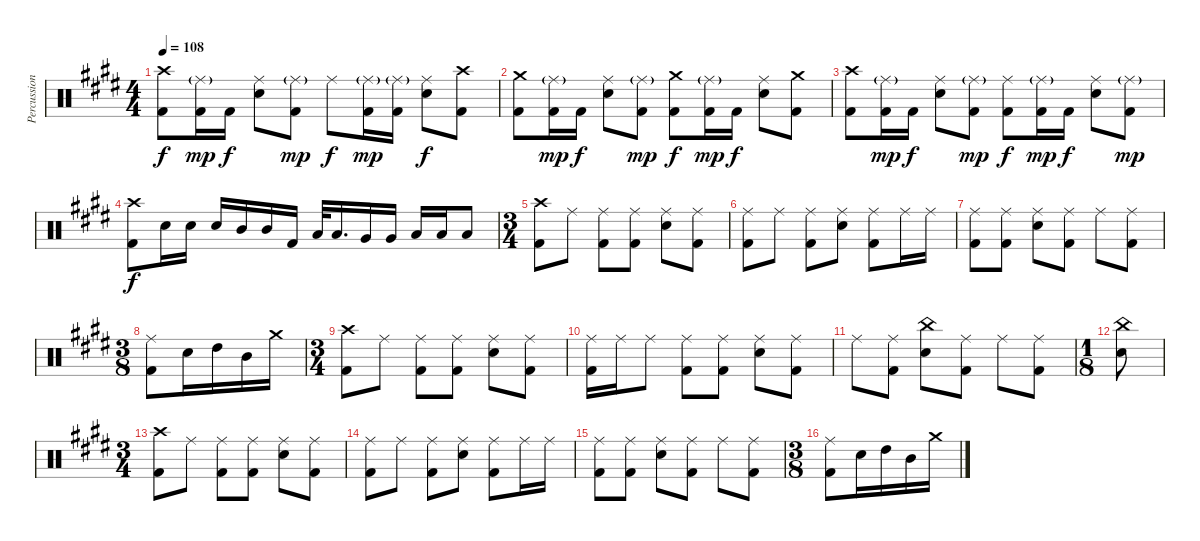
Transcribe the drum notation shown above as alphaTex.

\track ("Percussion" "Percussion") {instrument percussion}
\staff {score}
\articulation defaults
\ts (4 4)
\tempo 108
\clef neutral
\ks e
("Crash high (hit)" "Kick (hit) 2").8{dy f} ("Ride (middle)"{g} "Kick (hit) 2").16{dy mp} "Kick (hit) 2".16{dy f} ("Ride (middle)" "Electric Snare (hit)").8 ("Ride (middle)"{g} "Kick (hit) 2").8{dy mp} "Ride (middle)".8{dy f} ("Ride (middle)"{g} "Kick (hit) 2").16{dy mp} ("Ride (middle)"{g} "Kick (hit) 2").16 ("Ride (middle)" "Electric Snare (hit)").8{dy f} ("Crash high (hit)" "Kick (hit) 2").8 |
("Crash medium (hit)" "Kick (hit) 2").8 ("Ride (middle)"{g} "Kick (hit) 2").16{dy mp} "Kick (hit) 2".16{dy f} ("Ride (middle)" "Electric Snare (hit)").8 ("Ride (middle)"{g} "Kick (hit) 2").8{dy mp} ("Crash medium (hit)" "Kick (hit) 2").8{dy f} ("Ride (middle)"{g} "Kick (hit) 2").16{dy mp} "Kick (hit) 2".16{dy f} ("Ride (middle)" "Electric Snare (hit)").8 ("Crash medium (hit)" "Kick (hit) 2").8 |
("Crash high (hit)" "Kick (hit) 2").8 ("Ride (middle)"{g} "Kick (hit) 2").16{dy mp} "Kick (hit) 2".16{dy f} ("Ride (middle)" "Electric Snare (hit)").8 ("Ride (middle)"{g} "Kick (hit) 2").8{dy mp} ("Ride (middle)" "Kick (hit) 2").8{dy f} ("Ride (middle)"{g} "Kick (hit) 2").16{dy mp} "Kick (hit) 2".16{dy f} ("Ride (middle)" "Electric Snare (hit)").8 ("Ride (middle)"{g} "Kick (hit) 2").8{dy mp} |
("Crash high (hit)" "Kick (hit) 2").8{dy f} "Electric Snare (hit)".16 "Electric Snare (hit)".16 "Electric Snare (hit)".16 "Mid Tom (hit)".16 "Mid Tom (hit)".16 "Kick (hit) 2".16 "Low Tom (hit)".32 "Low Tom (hit)".16{d} "Very Low Tom (hit)".16 "Very Low Tom (hit)".16 "Low Floor Tom (hit)".16 "Low Floor Tom (hit)".16 "Low Floor Tom (hit)".8 |
\ts (3 4)
("Crash high (hit)" "Kick (hit) 2").8 "Ride (middle)".8 ("Ride (middle)" "Kick (hit) 2").8 ("Ride (middle)" "Kick (hit) 2").8 ("Ride (middle)" "Electric Snare (hit)").8 ("Ride (middle)" "Kick (hit) 2").8 |
("Ride (middle)" "Kick (hit) 2").8 "Ride (middle)".8 ("Ride (middle)" "Kick (hit) 2").8 ("Ride (middle)" "Electric Snare (hit)").8 ("Ride (middle)" "Kick (hit) 2").8 "Ride (middle)".16 "Ride (middle)".16 |
("Ride (middle)" "Kick (hit) 2").8 ("Ride (middle)" "Kick (hit) 2").8 ("Ride (middle)" "Electric Snare (hit)").8 ("Ride (middle)" "Kick (hit) 2").8 "Ride (middle)".8 ("Ride (middle)" "Kick (hit) 2").8 |
\ts (3 8)
("Ride (middle)" "Kick (hit) 2").8 "Electric Snare (hit)".16 "High Tom (hit)".16 "Mid Tom (hit)".16 "Crash medium (hit)".16 |
\ts (3 4)
("Crash high (hit)" "Kick (hit) 2").8 "Ride (middle)".8 ("Ride (middle)" "Kick (hit) 2").8 ("Ride (middle)" "Kick (hit) 2").8 ("Ride (middle)" "Electric Snare (hit)").8 ("Ride (middle)" "Kick (hit) 2").8 |
("Ride (middle)" "Kick (hit) 2").16 "Ride (middle)".16 "Ride (middle)".8 ("Ride (middle)" "Kick (hit) 2").8 ("Ride (middle)" "Kick (hit) 2").8 ("Ride (middle)" "Electric Snare (hit)").8 ("Ride (middle)" "Kick (hit) 2").8 |
"Ride (middle)".8 ("Ride (middle)" "Kick (hit) 2").8 ("China (hit)" "Electric Snare (hit)").8 ("Ride (middle)" "Kick (hit) 2").8 "Ride (middle)".8 ("Ride (middle)" "Kick (hit) 2").8 |
\ts (1 8)
("China (hit)" "Electric Snare (hit)").8 |
\ts (3 4)
("Crash high (hit)" "Kick (hit) 2").8{beam merge} "Ride (middle)".8 ("Ride (middle)" "Kick (hit) 2").8 ("Ride (middle)" "Kick (hit) 2").8 ("Ride (middle)" "Electric Snare (hit)").8 ("Ride (middle)" "Kick (hit) 2").8 |
("Ride (middle)" "Kick (hit) 2").8{beam merge} "Ride (middle)".8 ("Ride (middle)" "Kick (hit) 2").8 ("Ride (middle)" "Electric Snare (hit)").8 ("Ride (middle)" "Kick (hit) 2").8 "Ride (middle)".16 "Ride (middle)".16 |
("Ride (middle)" "Kick (hit) 2").8{beam merge} ("Ride (middle)" "Kick (hit) 2").8 ("Ride (middle)" "Electric Snare (hit)").8 ("Ride (middle)" "Kick (hit) 2").8 "Ride (middle)".8 ("Ride (middle)" "Kick (hit) 2").8 |
\ts (3 8)
("Ride (middle)" "Kick (hit) 2").8 "Electric Snare (hit)".16 "High Tom (hit)".16 "Mid Tom (hit)".16 "Crash medium (hit)".16
